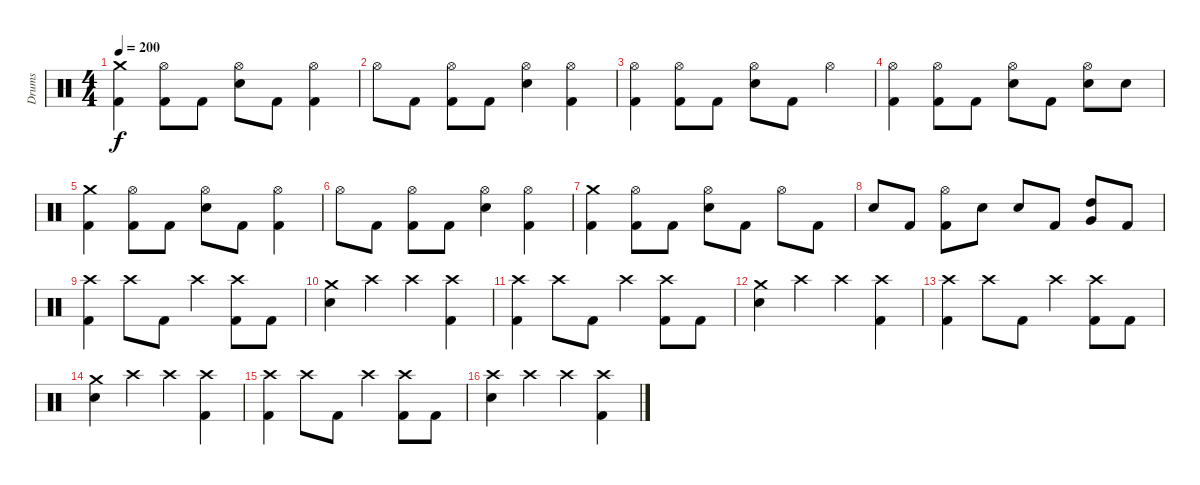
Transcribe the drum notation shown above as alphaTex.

\track ("Drums" "Drums") {instrument percussion}
\staff {score}
\articulation defaults
\ts (4 4)
\tempo 200
\clef neutral
\ks c
("Crash medium (hit)" "Kick (hit) 2").4{dy f} ("Hi-Hat (open)" "Kick (hit) 2").8 "Kick (hit) 2".8 ("Hi-Hat (open)" "Electric Snare (hit)").8 "Kick (hit) 2".8 ("Hi-Hat (open)" "Kick (hit) 2").4 |
"Hi-Hat (open)".8 "Kick (hit) 2".8 ("Hi-Hat (open)" "Kick (hit) 2").8 "Kick (hit) 2".8 ("Hi-Hat (open)" "Electric Snare (hit)").4 ("Hi-Hat (open)" "Kick (hit) 2").4 |
("Hi-Hat (open)" "Kick (hit) 2").4 ("Hi-Hat (open)" "Kick (hit) 2").8 "Kick (hit) 2".8 ("Hi-Hat (open)" "Electric Snare (hit)").8 "Kick (hit) 2".8 "Hi-Hat (open)".4 |
("Hi-Hat (open)" "Kick (hit) 2").4 ("Hi-Hat (open)" "Kick (hit) 2").8 "Kick (hit) 2".8 ("Hi-Hat (open)" "Electric Snare (hit)").8 "Kick (hit) 2".8 ("Hi-Hat (open)" "Electric Snare (hit)").8 "Electric Snare (hit)".8 |
("Crash medium (hit)" "Kick (hit) 2").4 ("Hi-Hat (open)" "Kick (hit) 2").8 "Kick (hit) 2".8 ("Hi-Hat (open)" "Electric Snare (hit)").8 "Kick (hit) 2".8 ("Hi-Hat (open)" "Kick (hit) 2").4 |
"Hi-Hat (open)".8 "Kick (hit) 2".8 ("Hi-Hat (open)" "Kick (hit) 2").8 "Kick (hit) 2".8 ("Hi-Hat (open)" "Electric Snare (hit)").4 ("Hi-Hat (open)" "Kick (hit) 2").4 |
("Crash medium (hit)" "Kick (hit) 2").4 ("Hi-Hat (open)" "Kick (hit) 2").8 "Kick (hit) 2".8 ("Hi-Hat (open)" "Electric Snare (hit)").8 "Kick (hit) 2".8 "Hi-Hat (open)".8 "Kick (hit) 2".8 |
"Electric Snare (hit)".8 "Kick (hit) 2".8 ("Hi-Hat (open)" "Kick (hit) 2").8 "Electric Snare (hit)".8 "Electric Snare (hit)".8 "Kick (hit) 2".8 ("High Tom (hit)" "Very Low Tom (hit)").8 "Kick (hit) 2".8 |
("Crash high (hit)" "Kick (hit) 2").4 "Crash high (hit)".8 "Kick (hit) 2".8 "Crash high (hit)".4 ("Kick (hit) 2" "Crash high (hit)").8 "Kick (hit) 2".8 |
("Electric Snare (hit)" "Crash medium (hit)").4 "Crash high (hit)".4 "Crash high (hit)".4 ("Crash high (hit)" "Kick (hit) 2").4 |
("Crash high (hit)" "Kick (hit) 2").4 "Crash high (hit)".8 "Kick (hit) 2".8 "Crash high (hit)".4 ("Kick (hit) 2" "Crash high (hit)").8 "Kick (hit) 2".8 |
("Crash medium (hit)" "Electric Snare (hit)").4 "Crash high (hit)".4 "Crash high (hit)".4 ("Crash high (hit)" "Kick (hit) 2").4 |
("Crash high (hit)" "Kick (hit) 2").4 "Crash high (hit)".8 "Kick (hit) 2".8 "Crash high (hit)".4 ("Kick (hit) 2" "Crash high (hit)").8 "Kick (hit) 2".8 |
("Crash medium (hit)" "Electric Snare (hit)").4 "Crash high (hit)".4 "Crash high (hit)".4 ("Crash high (hit)" "Kick (hit) 2").4 |
("Crash high (hit)" "Kick (hit) 2").4 "Crash high (hit)".8 "Kick (hit) 2".8 "Crash high (hit)".4 ("Kick (hit) 2" "Crash high (hit)").8 "Kick (hit) 2".8 |
("Crash high (hit)" "Electric Snare (hit)").4 "Crash high (hit)".4 "Crash high (hit)".4 ("Crash high (hit)" "Kick (hit) 2").4
